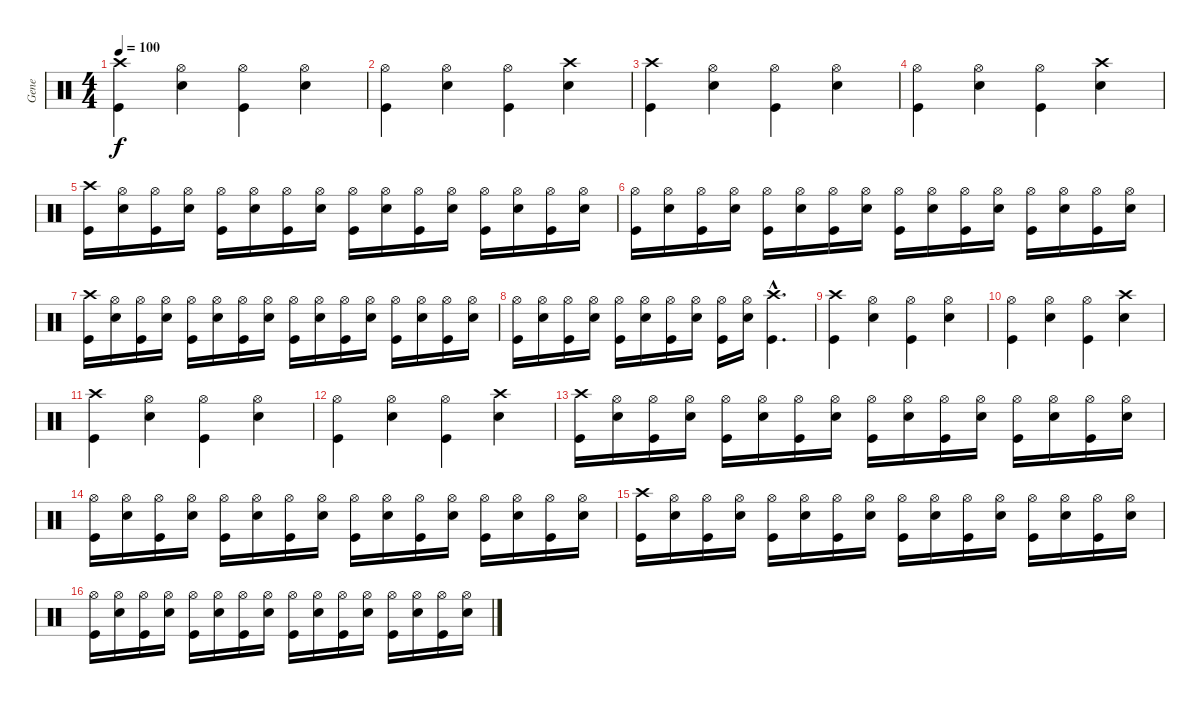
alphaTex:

\track ("Gene" "Gene") {instrument percussion}
\staff {score}
\articulation defaults
\ts (4 4)
\tempo 100
\clef neutral
\ks c
("Crash high (hit)" "Kick (hit)").4{dy f} ("Hi-Hat (open)" "Snare (hit) 2").4 ("Hi-Hat (open)" "Kick (hit)").4 ("Hi-Hat (open)" "Snare (hit) 2").4 |
("Hi-Hat (open)" "Kick (hit)").4 ("Hi-Hat (open)" "Snare (hit) 2").4 ("Hi-Hat (open)" "Kick (hit)").4 ("Crash high (hit)" "Snare (hit) 2").4 |
("Crash high (hit)" "Kick (hit)").4 ("Hi-Hat (open)" "Snare (hit) 2").4 ("Hi-Hat (open)" "Kick (hit)").4 ("Hi-Hat (open)" "Snare (hit) 2").4 |
("Hi-Hat (open)" "Kick (hit)").4 ("Hi-Hat (open)" "Snare (hit) 2").4 ("Hi-Hat (open)" "Kick (hit)").4 ("Crash high (hit)" "Snare (hit) 2").4 |
("Crash high (hit)" "Kick (hit)").16 ("Hi-Hat (open)" "Snare (hit) 2").16 ("Hi-Hat (open)" "Kick (hit)").16 ("Hi-Hat (open)" "Snare (hit) 2").16 ("Hi-Hat (open)" "Kick (hit)").16 ("Hi-Hat (open)" "Snare (hit) 2").16 ("Hi-Hat (open)" "Kick (hit)").16 ("Hi-Hat (open)" "Snare (hit) 2").16 ("Hi-Hat (open)" "Kick (hit)").16 ("Hi-Hat (open)" "Snare (hit) 2").16 ("Hi-Hat (open)" "Kick (hit)").16 ("Hi-Hat (open)" "Snare (hit) 2").16 ("Hi-Hat (open)" "Kick (hit)").16 ("Hi-Hat (open)" "Snare (hit) 2").16 ("Hi-Hat (open)" "Kick (hit)").16 ("Hi-Hat (open)" "Snare (hit) 2").16 |
("Hi-Hat (open)" "Kick (hit)").16 ("Hi-Hat (open)" "Snare (hit) 2").16 ("Hi-Hat (open)" "Kick (hit)").16 ("Hi-Hat (open)" "Snare (hit) 2").16 ("Hi-Hat (open)" "Kick (hit)").16 ("Hi-Hat (open)" "Snare (hit) 2").16 ("Hi-Hat (open)" "Kick (hit)").16 ("Hi-Hat (open)" "Snare (hit) 2").16 ("Hi-Hat (open)" "Kick (hit)").16 ("Hi-Hat (open)" "Snare (hit) 2").16 ("Hi-Hat (open)" "Kick (hit)").16 ("Hi-Hat (open)" "Snare (hit) 2").16 ("Hi-Hat (open)" "Kick (hit)").16 ("Hi-Hat (open)" "Snare (hit) 2").16 ("Hi-Hat (open)" "Kick (hit)").16 ("Hi-Hat (open)" "Snare (hit) 2").16 |
("Crash high (hit)" "Kick (hit)").16 ("Hi-Hat (open)" "Snare (hit) 2").16 ("Hi-Hat (open)" "Kick (hit)").16 ("Hi-Hat (open)" "Snare (hit) 2").16 ("Hi-Hat (open)" "Kick (hit)").16 ("Hi-Hat (open)" "Snare (hit) 2").16 ("Hi-Hat (open)" "Kick (hit)").16 ("Hi-Hat (open)" "Snare (hit) 2").16 ("Hi-Hat (open)" "Kick (hit)").16 ("Hi-Hat (open)" "Snare (hit) 2").16 ("Hi-Hat (open)" "Kick (hit)").16 ("Hi-Hat (open)" "Snare (hit) 2").16 ("Hi-Hat (open)" "Kick (hit)").16 ("Hi-Hat (open)" "Snare (hit) 2").16 ("Hi-Hat (open)" "Kick (hit)").16 ("Hi-Hat (open)" "Snare (hit) 2").16 |
("Hi-Hat (open)" "Kick (hit)").16 ("Hi-Hat (open)" "Snare (hit) 2").16 ("Hi-Hat (open)" "Kick (hit)").16 ("Hi-Hat (open)" "Snare (hit) 2").16 ("Hi-Hat (open)" "Kick (hit)").16 ("Hi-Hat (open)" "Snare (hit) 2").16 ("Hi-Hat (open)" "Kick (hit)").16 ("Hi-Hat (open)" "Snare (hit) 2").16 ("Hi-Hat (open)" "Kick (hit)").16 ("Hi-Hat (open)" "Snare (hit) 2").16 ("Crash high (hit)"{hac} "Kick (hit)"{hac}).4{d} |
("Crash high (hit)" "Kick (hit)").4 ("Hi-Hat (open)" "Snare (hit) 2").4 ("Hi-Hat (open)" "Kick (hit)").4 ("Hi-Hat (open)" "Snare (hit) 2").4 |
("Hi-Hat (open)" "Kick (hit)").4 ("Hi-Hat (open)" "Snare (hit) 2").4 ("Hi-Hat (open)" "Kick (hit)").4 ("Crash high (hit)" "Snare (hit) 2").4 |
("Crash high (hit)" "Kick (hit)").4 ("Hi-Hat (open)" "Snare (hit) 2").4 ("Hi-Hat (open)" "Kick (hit)").4 ("Hi-Hat (open)" "Snare (hit) 2").4 |
("Hi-Hat (open)" "Kick (hit)").4 ("Hi-Hat (open)" "Snare (hit) 2").4 ("Hi-Hat (open)" "Kick (hit)").4 ("Crash high (hit)" "Snare (hit) 2").4 |
("Crash high (hit)" "Kick (hit)").16 ("Hi-Hat (open)" "Snare (hit) 2").16 ("Hi-Hat (open)" "Kick (hit)").16 ("Hi-Hat (open)" "Snare (hit) 2").16 ("Hi-Hat (open)" "Kick (hit)").16 ("Hi-Hat (open)" "Snare (hit) 2").16 ("Hi-Hat (open)" "Kick (hit)").16 ("Hi-Hat (open)" "Snare (hit) 2").16 ("Hi-Hat (open)" "Kick (hit)").16 ("Hi-Hat (open)" "Snare (hit) 2").16 ("Hi-Hat (open)" "Kick (hit)").16 ("Hi-Hat (open)" "Snare (hit) 2").16 ("Hi-Hat (open)" "Kick (hit)").16 ("Hi-Hat (open)" "Snare (hit) 2").16 ("Hi-Hat (open)" "Kick (hit)").16 ("Hi-Hat (open)" "Snare (hit) 2").16 |
("Hi-Hat (open)" "Kick (hit)").16 ("Hi-Hat (open)" "Snare (hit) 2").16 ("Hi-Hat (open)" "Kick (hit)").16 ("Hi-Hat (open)" "Snare (hit) 2").16 ("Hi-Hat (open)" "Kick (hit)").16 ("Hi-Hat (open)" "Snare (hit) 2").16 ("Hi-Hat (open)" "Kick (hit)").16 ("Hi-Hat (open)" "Snare (hit) 2").16 ("Hi-Hat (open)" "Kick (hit)").16 ("Hi-Hat (open)" "Snare (hit) 2").16 ("Hi-Hat (open)" "Kick (hit)").16 ("Hi-Hat (open)" "Snare (hit) 2").16 ("Hi-Hat (open)" "Kick (hit)").16 ("Hi-Hat (open)" "Snare (hit) 2").16 ("Hi-Hat (open)" "Kick (hit)").16 ("Hi-Hat (open)" "Snare (hit) 2").16 |
("Crash high (hit)" "Kick (hit)").16 ("Hi-Hat (open)" "Snare (hit) 2").16 ("Hi-Hat (open)" "Kick (hit)").16 ("Hi-Hat (open)" "Snare (hit) 2").16 ("Hi-Hat (open)" "Kick (hit)").16 ("Hi-Hat (open)" "Snare (hit) 2").16 ("Hi-Hat (open)" "Kick (hit)").16 ("Hi-Hat (open)" "Snare (hit) 2").16 ("Hi-Hat (open)" "Kick (hit)").16 ("Hi-Hat (open)" "Snare (hit) 2").16 ("Hi-Hat (open)" "Kick (hit)").16 ("Hi-Hat (open)" "Snare (hit) 2").16 ("Hi-Hat (open)" "Kick (hit)").16 ("Hi-Hat (open)" "Snare (hit) 2").16 ("Hi-Hat (open)" "Kick (hit)").16 ("Hi-Hat (open)" "Snare (hit) 2").16 |
("Hi-Hat (open)" "Kick (hit)").16 ("Hi-Hat (open)" "Snare (hit) 2").16 ("Hi-Hat (open)" "Kick (hit)").16 ("Hi-Hat (open)" "Snare (hit) 2").16 ("Hi-Hat (open)" "Kick (hit)").16 ("Hi-Hat (open)" "Snare (hit) 2").16 ("Hi-Hat (open)" "Kick (hit)").16 ("Hi-Hat (open)" "Snare (hit) 2").16 ("Hi-Hat (open)" "Kick (hit)").16 ("Hi-Hat (open)" "Snare (hit) 2").16 ("Hi-Hat (open)" "Kick (hit)").16 ("Hi-Hat (open)" "Snare (hit) 2").16 ("Hi-Hat (open)" "Kick (hit)").16 ("Hi-Hat (open)" "Snare (hit) 2").16 ("Hi-Hat (open)" "Kick (hit)").16 ("Hi-Hat (open)" "Snare (hit) 2").16
